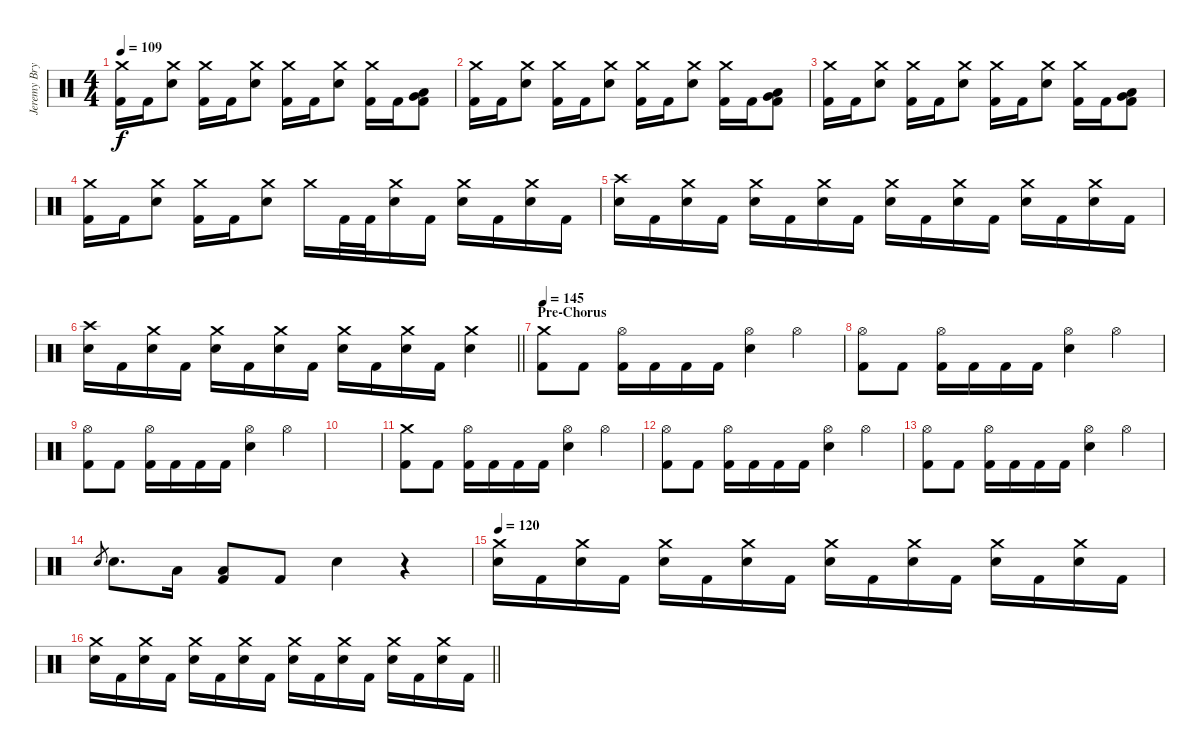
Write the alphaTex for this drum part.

\track ("Jeremy Bryan - Drums" "Jeremy Bry") {instrument percussion}
\staff {score}
\articulation defaults
\ts (4 4)
\tempo 109
\clef neutral
\ks c
("Crash medium (hit)" "Kick (hit) 2").16{dy f} "Kick (hit) 2".16 ("Crash medium (hit)" "Electric Snare (hit)").8 ("Crash medium (hit)" "Kick (hit) 2").16 "Kick (hit) 2".16 ("Crash medium (hit)" "Electric Snare (hit)").8 ("Crash medium (hit)" "Kick (hit) 2").16 "Kick (hit) 2".16 ("Crash medium (hit)" "Electric Snare (hit)").8 ("Crash medium (hit)" "Kick (hit) 2").16 "Kick (hit) 2".16 ("Very Low Tom (hit)" "Low Floor Tom (hit)" "Kick (hit) 2").8 |
("Crash medium (hit)" "Kick (hit) 2").16 "Kick (hit) 2".16 ("Crash medium (hit)" "Electric Snare (hit)").8 ("Crash medium (hit)" "Kick (hit) 2").16 "Kick (hit) 2".16 ("Crash medium (hit)" "Electric Snare (hit)").8 ("Crash medium (hit)" "Kick (hit) 2").16 "Kick (hit) 2".16 ("Crash medium (hit)" "Electric Snare (hit)").8 ("Crash medium (hit)" "Kick (hit) 2").16 "Kick (hit) 2".16 ("Very Low Tom (hit)" "Low Floor Tom (hit)" "Kick (hit) 2").8 |
("Crash medium (hit)" "Kick (hit) 2").16 "Kick (hit) 2".16 ("Crash medium (hit)" "Electric Snare (hit)").8 ("Crash medium (hit)" "Kick (hit) 2").16 "Kick (hit) 2".16 ("Crash medium (hit)" "Electric Snare (hit)").8 ("Crash medium (hit)" "Kick (hit) 2").16 "Kick (hit) 2".16 ("Crash medium (hit)" "Electric Snare (hit)").8 ("Crash medium (hit)" "Kick (hit) 2").16 "Kick (hit) 2".16 ("Very Low Tom (hit)" "Low Floor Tom (hit)" "Kick (hit) 2").8 |
("Crash medium (hit)" "Kick (hit) 2").16 "Kick (hit) 2".16 ("Crash medium (hit)" "Electric Snare (hit)").8 ("Crash medium (hit)" "Kick (hit) 2").16 "Kick (hit) 2".16 ("Crash medium (hit)" "Electric Snare (hit)").8 "Crash medium (hit)".16 "Kick (hit) 2".32 "Kick (hit) 2".32 ("Crash medium (hit)" "Electric Snare (hit)").16 "Kick (hit) 2".16 ("Crash medium (hit)" "Electric Snare (hit)").16 "Kick (hit) 2".16 ("Crash medium (hit)" "Electric Snare (hit)").16 "Kick (hit) 2".16 |
("Crash high (hit)" "Electric Snare (hit)").16 "Kick (hit) 2".16 ("Crash medium (hit)" "Electric Snare (hit)").16 "Kick (hit) 2".16 ("Crash medium (hit)" "Electric Snare (hit)").16 "Kick (hit) 2".16 ("Crash medium (hit)" "Electric Snare (hit)").16 "Kick (hit) 2".16 ("Crash medium (hit)" "Electric Snare (hit)").16 "Kick (hit) 2".16 ("Crash medium (hit)" "Electric Snare (hit)").16 "Kick (hit) 2".16 ("Crash medium (hit)" "Electric Snare (hit)").16 "Kick (hit) 2".16 ("Crash medium (hit)" "Electric Snare (hit)").16 "Kick (hit) 2".16 |
\barLineRight lightlight
("Crash high (hit)" "Electric Snare (hit)").16 "Kick (hit) 2".16 ("Crash medium (hit)" "Electric Snare (hit)").16 "Kick (hit) 2".16 ("Crash medium (hit)" "Electric Snare (hit)").16 "Kick (hit) 2".16 ("Crash medium (hit)" "Electric Snare (hit)").16 "Kick (hit) 2".16 ("Crash medium (hit)" "Electric Snare (hit)").16 "Kick (hit) 2".16 ("Crash medium (hit)" "Electric Snare (hit)").16 "Kick (hit) 2".16 ("Crash medium (hit)" "Electric Snare (hit)").4 |
\section ("" "Pre-Chorus")
\tempo 145
("Crash medium (hit)" "Kick (hit) 2").8 "Kick (hit) 2".8 ("Hi-Hat (open)" "Kick (hit) 2").16 "Kick (hit) 2".16 "Kick (hit) 2".16 "Kick (hit) 2".16 ("Hi-Hat (open)" "Electric Snare (hit)").4 "Hi-Hat (open)".4 |
("Hi-Hat (open)" "Kick (hit) 2").8 "Kick (hit) 2".8 ("Hi-Hat (open)" "Kick (hit) 2").16 "Kick (hit) 2".16 "Kick (hit) 2".16 "Kick (hit) 2".16 ("Hi-Hat (open)" "Electric Snare (hit)").4 "Hi-Hat (open)".4 |
("Hi-Hat (open)" "Kick (hit) 2").8 "Kick (hit) 2".8 ("Hi-Hat (open)" "Kick (hit) 2").16 "Kick (hit) 2".16 "Kick (hit) 2".16 "Kick (hit) 2".16 ("Hi-Hat (open)" "Electric Snare (hit)").4 "Hi-Hat (open)".4 |
|
("Crash medium (hit)" "Kick (hit) 2").8 "Kick (hit) 2".8 ("Hi-Hat (open)" "Kick (hit) 2").16 "Kick (hit) 2".16 "Kick (hit) 2".16 "Kick (hit) 2".16 ("Hi-Hat (open)" "Electric Snare (hit)").4 "Hi-Hat (open)".4 |
("Hi-Hat (open)" "Kick (hit) 2").8 "Kick (hit) 2".8 ("Hi-Hat (open)" "Kick (hit) 2").16 "Kick (hit) 2".16 "Kick (hit) 2".16 "Kick (hit) 2".16 ("Hi-Hat (open)" "Electric Snare (hit)").4 "Hi-Hat (open)".4 |
("Hi-Hat (open)" "Kick (hit) 2").8 "Kick (hit) 2".8 ("Hi-Hat (open)" "Kick (hit) 2").16 "Kick (hit) 2".16 "Kick (hit) 2".16 "Kick (hit) 2".16 ("Hi-Hat (open)" "Electric Snare (hit)").4 "Hi-Hat (open)".4 |
"Electric Snare (hit)".8{gr} "Electric Snare (hit)".8{d} "Low Tom (hit)".16 ("Low Tom (hit)" "Kick (hit) 2").8 "Kick (hit) 2".8 "Electric Snare (hit)".4 r.4 |
\tempo 120
("Crash medium (hit)" "Electric Snare (hit)").16 "Kick (hit) 2".16 ("Crash medium (hit)" "Electric Snare (hit)").16 "Kick (hit) 2".16 ("Crash medium (hit)" "Electric Snare (hit)").16 "Kick (hit) 2".16 ("Crash medium (hit)" "Electric Snare (hit)").16 "Kick (hit) 2".16 ("Crash medium (hit)" "Electric Snare (hit)").16 "Kick (hit) 2".16 ("Crash medium (hit)" "Electric Snare (hit)").16 "Kick (hit) 2".16 ("Crash medium (hit)" "Electric Snare (hit)").16 "Kick (hit) 2".16 ("Crash medium (hit)" "Electric Snare (hit)").16 "Kick (hit) 2".16 |
\barLineRight lightlight
("Crash medium (hit)" "Electric Snare (hit)").16 "Kick (hit) 2".16 ("Crash medium (hit)" "Electric Snare (hit)").16 "Kick (hit) 2".16 ("Crash medium (hit)" "Electric Snare (hit)").16 "Kick (hit) 2".16 ("Crash medium (hit)" "Electric Snare (hit)").16 "Kick (hit) 2".16 ("Crash medium (hit)" "Electric Snare (hit)").16 "Kick (hit) 2".16 ("Crash medium (hit)" "Electric Snare (hit)").16 "Kick (hit) 2".16 ("Crash medium (hit)" "Electric Snare (hit)").16 "Kick (hit) 2".16 ("Crash medium (hit)" "Electric Snare (hit)").16 "Kick (hit) 2".16
